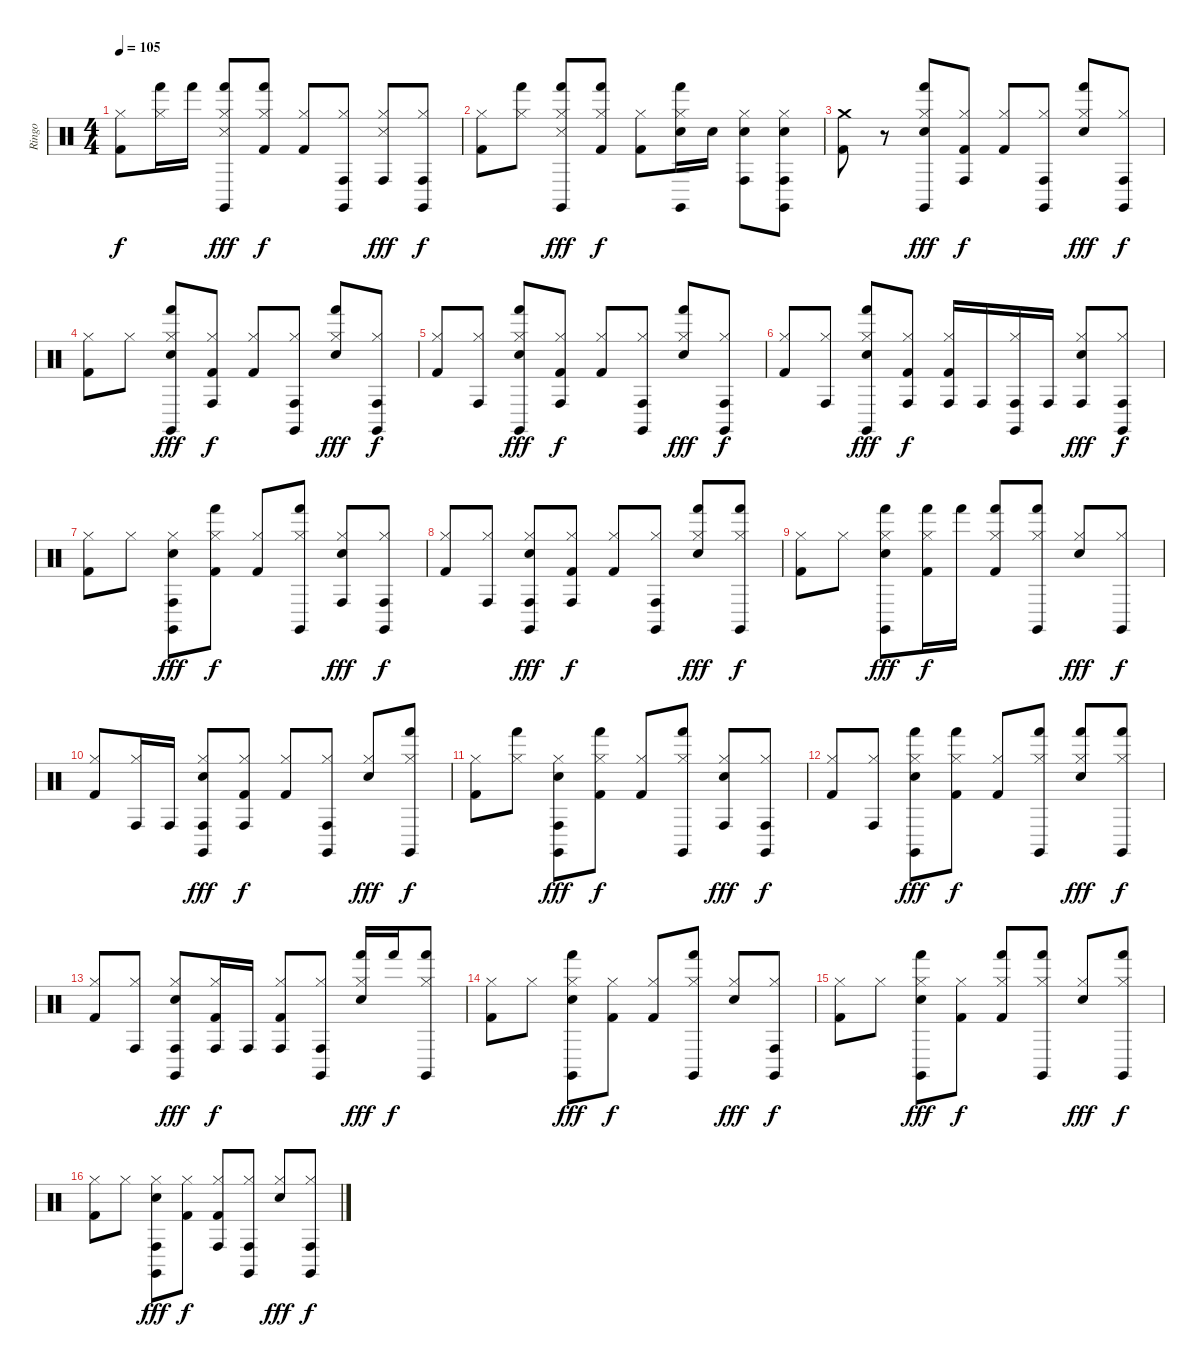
\track ("Ringo" "Ringo") {instrument percussion}
\staff {score}
\articulation defaults
\ts (4 4)
\tempo 105
\clef neutral
\ks c
("Kick (hit) 2" "Hi-Hat (closed)").8{dy f} ("Hi-Hat (closed)" "Hand (hit)").16 "Hand (hit)".16 ("Snare (side stick) 3" "Hand (hit)" "Hi-Hat (closed)" "Claves (hit)").8{dy fff} ("Hand (hit)" "Kick (hit) 2" "Hi-Hat (closed)").8{dy f} ("Hi-Hat (closed)" "Kick (hit) 2").8 ("Conga high (hit)" "Hi-Hat (closed)" "Claves (hit)").8 ("Hi-Hat (closed)" "Snare (side stick) 3" "Conga high (hit)").8{dy fff} ("Conga high (hit)" "Hi-Hat (closed)" "Claves (hit)").8{dy f} |
("Kick (hit) 2" "Hi-Hat (closed)").8 ("Hi-Hat (closed)" "Hand (hit)").8 ("Snare (side stick) 3" "Claves (hit)" "Hi-Hat (closed)" "Hand (hit)").8{dy fff} ("Hi-Hat (closed)" "Kick (hit) 2" "Hand (hit)").8{dy f} ("Kick (hit) 2" "Hi-Hat (closed)").8 ("Hand (hit)" "Hi-Hat (closed)" "Snare (hit) 2" "Claves (hit)").16 "Snare (hit) 2".16 ("Hi-Hat (closed)" "Conga high (hit)" "Snare (hit) 2").8 ("Claves (hit)" "Hi-Hat (closed)" "Snare (hit) 2" "Conga high (hit)").8 |
("Kick (hit) 2" "Crash medium (hit)").8 r.8 ("Snare (hit) 2" "Claves (hit)" "Hand (hit)" "Hi-Hat (closed)").8{dy fff} ("Kick (hit) 2" "Hi-Hat (closed)" "Conga high (hit)").8{dy f} ("Kick (hit) 2" "Hi-Hat (closed)").8 ("Claves (hit)" "Hi-Hat (closed)" "Conga high (hit)").8 ("Hi-Hat (closed)" "Hand (hit)" "Snare (hit) 2").8{dy fff} ("Claves (hit)" "Conga high (hit)" "Hi-Hat (closed)").8{dy f} |
("Kick (hit) 2" "Hi-Hat (closed)").8 "Hi-Hat (closed)".8 ("Hand (hit)" "Hi-Hat (closed)" "Snare (hit) 2" "Claves (hit)").8{dy fff} ("Hi-Hat (closed)" "Conga high (hit)" "Kick (hit) 2").8{dy f} ("Hi-Hat (closed)" "Kick (hit) 2").8 ("Conga high (hit)" "Claves (hit)" "Hi-Hat (closed)").8 ("Snare (hit) 2" "Hi-Hat (closed)" "Hand (hit)").8{dy fff} ("Claves (hit)" "Hi-Hat (closed)" "Conga high (hit)").8{dy f} |
("Hi-Hat (closed)" "Kick (hit) 2").8 ("Conga high (hit)" "Hi-Hat (closed)").8 ("Hi-Hat (closed)" "Snare (hit) 2" "Hand (hit)" "Claves (hit)").8{dy fff} ("Hi-Hat (closed)" "Kick (hit) 2" "Conga high (hit)").8{dy f} ("Hi-Hat (closed)" "Kick (hit) 2").8 ("Claves (hit)" "Hi-Hat (closed)" "Conga high (hit)").8 ("Hi-Hat (closed)" "Hand (hit)" "Snare (hit) 2").8{dy fff} ("Conga high (hit)" "Claves (hit)" "Hi-Hat (closed)").8{dy f} |
("Kick (hit) 2" "Hi-Hat (closed)").8 ("Conga high (hit)" "Hi-Hat (closed)").8 ("Hand (hit)" "Claves (hit)" "Hi-Hat (closed)" "Snare (hit) 2").8{dy fff} ("Hi-Hat (closed)" "Conga high (hit)" "Kick (hit) 2").8{dy f} ("Hi-Hat (closed)" "Kick (hit) 2" "Conga high (hit)").16 "Conga high (hit)".16 ("Claves (hit)" "Hi-Hat (closed)" "Conga high (hit)").16 "Conga high (hit)".16 ("Conga high (hit)" "Hi-Hat (closed)" "Snare (hit) 2").8{dy fff} ("Claves (hit)" "Hi-Hat (closed)" "Conga high (hit)").8{dy f} |
("Kick (hit) 2" "Hi-Hat (closed)").8 "Hi-Hat (closed)".8 ("Hi-Hat (closed)" "Claves (hit)" "Snare (hit) 2" "Conga high (hit)").8{dy fff} ("Hand (hit)" "Kick (hit) 2" "Hi-Hat (closed)").8{dy f} ("Hi-Hat (closed)" "Kick (hit) 2").8 ("Claves (hit)" "Hi-Hat (closed)" "Hand (hit)").8 ("Conga high (hit)" "Snare (hit) 2" "Hi-Hat (closed)").8{dy fff} ("Claves (hit)" "Hi-Hat (closed)" "Conga high (hit)").8{dy f} |
("Hi-Hat (closed)" "Kick (hit) 2").8 ("Conga high (hit)" "Hi-Hat (closed)").8 ("Snare (hit) 2" "Hi-Hat (closed)" "Claves (hit)" "Conga high (hit)").8{dy fff} ("Kick (hit) 2" "Conga high (hit)" "Hi-Hat (closed)").8{dy f} ("Kick (hit) 2" "Hi-Hat (closed)").8 ("Hi-Hat (closed)" "Claves (hit)" "Conga high (hit)").8 ("Hi-Hat (closed)" "Snare (hit) 2" "Hand (hit)").8{dy fff} ("Hi-Hat (closed)" "Hand (hit)" "Claves (hit)").8{dy f} |
("Kick (hit) 2" "Hi-Hat (closed)").8 "Hi-Hat (closed)".8 ("Hand (hit)" "Claves (hit)" "Hi-Hat (closed)" "Snare (hit) 2").8{dy fff} ("Hand (hit)" "Hi-Hat (closed)" "Kick (hit) 2").16{dy f} "Hand (hit)".16 ("Hand (hit)" "Hi-Hat (closed)" "Kick (hit) 2").8 ("Hi-Hat (closed)" "Hand (hit)" "Claves (hit)").8 ("Snare (hit) 2" "Hi-Hat (closed)").8{dy fff} ("Hi-Hat (closed)" "Claves (hit)").8{dy f} |
("Hi-Hat (closed)" "Kick (hit) 2").8 ("Hi-Hat (closed)" "Conga high (hit)").16 "Conga high (hit)".16 ("Hi-Hat (closed)" "Claves (hit)" "Snare (hit) 2" "Conga high (hit)").8{dy fff} ("Conga high (hit)" "Kick (hit) 2" "Hi-Hat (closed)").8{dy f} ("Kick (hit) 2" "Hi-Hat (closed)").8 ("Claves (hit)" "Conga high (hit)" "Hi-Hat (closed)").8 ("Hi-Hat (closed)" "Snare (hit) 2").8{dy fff} ("Claves (hit)" "Hi-Hat (closed)" "Hand (hit)").8{dy f} |
("Hi-Hat (closed)" "Kick (hit) 2").8 ("Hi-Hat (closed)" "Hand (hit)").8 ("Snare (hit) 2" "Hi-Hat (closed)" "Conga high (hit)" "Claves (hit)").8{dy fff} ("Hand (hit)" "Hi-Hat (closed)" "Kick (hit) 2").8{dy f} ("Kick (hit) 2" "Hi-Hat (closed)").8 ("Claves (hit)" "Hand (hit)" "Hi-Hat (closed)").8 ("Conga high (hit)" "Snare (hit) 2" "Hi-Hat (closed)").8{dy fff} ("Claves (hit)" "Hi-Hat (closed)" "Conga high (hit)").8{dy f} |
("Hi-Hat (closed)" "Kick (hit) 2").8 ("Conga high (hit)" "Hi-Hat (closed)").8 ("Snare (hit) 2" "Hi-Hat (closed)" "Claves (hit)" "Hand (hit)").8{dy fff} ("Hand (hit)" "Hi-Hat (closed)" "Kick (hit) 2").8{dy f} ("Kick (hit) 2" "Hi-Hat (closed)").8 ("Hi-Hat (closed)" "Hand (hit)" "Claves (hit)").8 ("Snare (hit) 2" "Hi-Hat (closed)" "Hand (hit)").8{dy fff} ("Hi-Hat (closed)" "Claves (hit)" "Hand (hit)").8{dy f} |
("Kick (hit) 2" "Hi-Hat (closed)").8 ("Hi-Hat (closed)" "Conga high (hit)").8 ("Hi-Hat (closed)" "Snare (hit) 2" "Conga high (hit)" "Claves (hit)").8{dy fff} ("Kick (hit) 2" "Conga high (hit)" "Hi-Hat (closed)").16{dy f} "Conga high (hit)".16 ("Hi-Hat (closed)" "Kick (hit) 2" "Conga high (hit)").8 ("Conga high (hit)" "Claves (hit)" "Hi-Hat (closed)").8 ("Hi-Hat (closed)" "Hand (hit)" "Snare (hit) 2").16{dy fff} "Hand (hit)".16{dy f} ("Claves (hit)" "Hi-Hat (closed)" "Hand (hit)").8 |
("Kick (hit) 2" "Hi-Hat (closed)").8 "Hi-Hat (closed)".8 ("Claves (hit)" "Snare (hit) 2" "Hand (hit)" "Hi-Hat (closed)").8{dy fff} ("Kick (hit) 2" "Hi-Hat (closed)").8{dy f} ("Hi-Hat (closed)" "Kick (hit) 2").8 ("Hand (hit)" "Claves (hit)" "Hi-Hat (closed)").8 ("Hi-Hat (closed)" "Snare (hit) 2").8{dy fff} ("Hi-Hat (closed)" "Conga high (hit)" "Claves (hit)").8{dy f} |
("Kick (hit) 2" "Hi-Hat (closed)").8 "Hi-Hat (closed)".8 ("Snare (hit) 2" "Hand (hit)" "Claves (hit)" "Hi-Hat (closed)").8{dy fff} ("Kick (hit) 2" "Hi-Hat (closed)").8{dy f} ("Hand (hit)" "Hi-Hat (closed)" "Kick (hit) 2").8 ("Hand (hit)" "Hi-Hat (closed)" "Claves (hit)").8 ("Hi-Hat (closed)" "Snare (hit) 2").8{dy fff} ("Claves (hit)" "Hi-Hat (closed)" "Hand (hit)").8{dy f} |
("Kick (hit) 2" "Hi-Hat (closed)").8 "Hi-Hat (closed)".8 ("Hi-Hat (closed)" "Claves (hit)" "Snare (hit) 2" "Conga high (hit)").8{dy fff} ("Kick (hit) 2" "Hi-Hat (closed)").8{dy f} ("Conga high (hit)" "Kick (hit) 2" "Hi-Hat (closed)").8 ("Hi-Hat (closed)" "Claves (hit)" "Conga high (hit)").8 ("Hi-Hat (closed)" "Snare (hit) 2").8{dy fff} ("Hi-Hat (closed)" "Claves (hit)" "Conga high (hit)").8{dy f}
